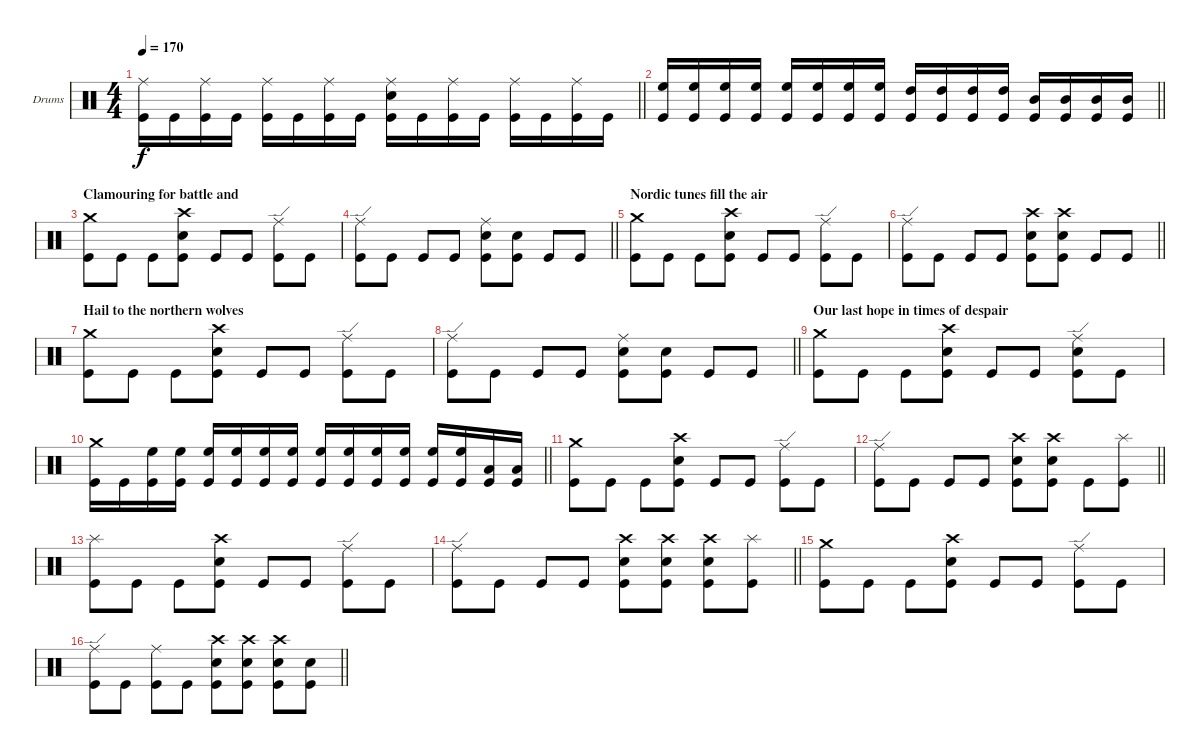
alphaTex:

\bracketExtendMode groupsimilarinstruments
\firstSystemTrackNameOrientation horizontal
\otherSystemsTrackNameOrientation horizontal
\track ("Drumkit" "Drums") {instrument percussion}
\staff {score}
\articulation defaults
\ts (4 4)
\tempo 170
\clef neutral
\barLineRight lightlight
\ks c
("Ride (middle)" "Kick (hit)").16{dy f} "Kick (hit)".16 ("Ride (middle)" "Kick (hit)").16 "Kick (hit)".16 ("Ride (middle)" "Kick (hit)").16 "Kick (hit)".16 ("Ride (middle)" "Kick (hit)").16 "Kick (hit)".16 ("Ride (middle)" "Snare (hit) 2" "Kick (hit)").16 "Kick (hit)".16 ("Ride (middle)" "Kick (hit)").16 "Kick (hit)".16 ("Ride (middle)" "Kick (hit)").16 "Kick (hit)".16 ("Ride (middle)" "Kick (hit)").16 "Kick (hit)".16 |
\barLineRight lightlight
("High Floor Tom (hit)" "Kick (hit)").16 ("High Floor Tom (hit)" "Kick (hit)").16 ("High Floor Tom (hit)" "Kick (hit)").16 ("High Floor Tom (hit)" "Kick (hit)").16 ("High Floor Tom (hit)" "Kick (hit)").16 ("High Floor Tom (hit)" "Kick (hit)").16 ("High Floor Tom (hit)" "Kick (hit)").16 ("High Floor Tom (hit)" "Kick (hit)").16 ("High Tom (hit)" "Kick (hit)").16 ("High Tom (hit)" "Kick (hit)").16 ("High Tom (hit)" "Kick (hit)").16 ("High Tom (hit)" "Kick (hit)").16 ("Mid Tom (hit)" "Kick (hit)").16 ("Mid Tom (hit)" "Kick (hit)").16 ("Mid Tom (hit)" "Kick (hit)").16 ("Mid Tom (hit)" "Kick (hit)").16 |
\section ("" "Clamouring for battle and")
("Crash medium (hit)" "Kick (hit)").8 "Kick (hit)".8 "Kick (hit)".8 ("Crash high (hit)" "Snare (hit) 2" "Kick (hit)").8 "Kick (hit)".8 "Kick (hit)".8 ("Ride (edge)" "Kick (hit)").8 "Kick (hit)".8 |
\barLineRight lightlight
("Ride (edge)" "Kick (hit)").8 "Kick (hit)".8 "Kick (hit)".8 "Kick (hit)".8 ("Ride (middle)" "Snare (hit) 2" "Kick (hit)").8 ("Snare (hit) 2" "Kick (hit)").8 "Kick (hit)".8 "Kick (hit)".8 |
\section ("" "Nordic tunes fill the air")
("Crash medium (hit)" "Kick (hit)").8 "Kick (hit)".8 "Kick (hit)".8 ("Crash high (hit)" "Snare (hit) 2" "Kick (hit)").8 "Kick (hit)".8 "Kick (hit)".8 ("Ride (edge)" "Kick (hit)").8 "Kick (hit)".8 |
\barLineRight lightlight
("Ride (edge)" "Kick (hit)").8 "Kick (hit)".8 "Kick (hit)".8 "Kick (hit)".8 ("Crash high (hit)" "Snare (hit) 2" "Kick (hit)").8 ("Crash high (hit)" "Snare (hit) 2" "Kick (hit)").8 "Kick (hit)".8 "Kick (hit)".8 |
\section ("" "Hail to the northern wolves")
("Crash medium (hit)" "Kick (hit)").8 "Kick (hit)".8 "Kick (hit)".8 ("Crash high (hit)" "Snare (hit) 2" "Kick (hit)").8 "Kick (hit)".8 "Kick (hit)".8 ("Ride (edge)" "Kick (hit)").8 "Kick (hit)".8 |
\barLineRight lightlight
("Ride (edge)" "Kick (hit)").8 "Kick (hit)".8 "Kick (hit)".8 "Kick (hit)".8 ("Ride (middle)" "Snare (hit) 2" "Kick (hit)").8 ("Snare (hit) 2" "Kick (hit)").8 "Kick (hit)".8 "Kick (hit)".8 |
\section ("" "Our last hope in times of despair ")
("Crash medium (hit)" "Kick (hit)").8 "Kick (hit)".8 "Kick (hit)".8 ("Crash high (hit)" "Snare (hit) 2" "Kick (hit)").8 "Kick (hit)".8 "Kick (hit)".8 ("Ride (edge)" "Snare (hit) 2" "Kick (hit)").8 "Kick (hit)".8 |
\barLineRight lightlight
("Crash medium (hit)" "Kick (hit)").16 "Kick (hit)".16 ("High Floor Tom (hit)" "Kick (hit)").16 ("High Floor Tom (hit)" "Kick (hit)").16 ("High Floor Tom (hit)" "Kick (hit)").16 ("High Floor Tom (hit)" "Kick (hit)").16 ("High Floor Tom (hit)" "Kick (hit)").16 ("High Floor Tom (hit)" "Kick (hit)").16 ("High Floor Tom (hit)" "Kick (hit)").16 ("High Floor Tom (hit)" "Kick (hit)").16 ("High Floor Tom (hit)" "Kick (hit)").16 ("High Floor Tom (hit)" "Kick (hit)").16 ("High Floor Tom (hit)" "Kick (hit)").16 ("High Floor Tom (hit)" "Kick (hit)").16 ("Low Tom (hit)" "Kick (hit)").16 ("Low Tom (hit)" "Kick (hit)").16 |
("Crash medium (hit)" "Kick (hit)").8 "Kick (hit)".8 "Kick (hit)".8 ("Crash high (hit)" "Snare (hit) 2" "Kick (hit)").8 "Kick (hit)".8 "Kick (hit)".8 ("Ride (edge)" "Kick (hit)").8 "Kick (hit)".8 |
\barLineRight lightlight
("Ride (edge)" "Kick (hit)").8 "Kick (hit)".8 "Kick (hit)".8 "Kick (hit)".8 ("Crash high (hit)" "Snare (hit) 2" "Kick (hit)").8 ("Crash high (hit)" "Snare (hit) 2" "Kick (hit)").8 "Kick (hit)".8 ("Splash (hit)" "Kick (hit)").8 |
("Splash (hit)" "Kick (hit)").8 "Kick (hit)".8 "Kick (hit)".8 ("Crash high (hit)" "Snare (hit) 2" "Kick (hit)").8 "Kick (hit)".8 "Kick (hit)".8 ("Ride (edge)" "Kick (hit)").8 "Kick (hit)".8 |
\barLineRight lightlight
("Ride (edge)" "Kick (hit)").8 "Kick (hit)".8 "Kick (hit)".8 "Kick (hit)".8 ("Crash high (hit)" "Snare (hit) 2" "Kick (hit)").8 ("Crash high (hit)" "Snare (hit) 2" "Kick (hit)").8 ("Crash high (hit)" "Snare (hit) 2" "Kick (hit)").8 ("Splash (hit)" "Kick (hit)").8 |
("Crash medium (hit)" "Kick (hit)").8 "Kick (hit)".8 "Kick (hit)".8 ("Crash high (hit)" "Snare (hit) 2" "Kick (hit)").8 "Kick (hit)".8 "Kick (hit)".8 ("Ride (edge)" "Kick (hit)").8 "Kick (hit)".8 |
\barLineRight lightlight
("Ride (edge)" "Kick (hit)").8 "Kick (hit)".8 ("Ride (middle)" "Kick (hit)").8 "Kick (hit)".8 ("Crash high (hit)" "Snare (hit) 2" "Kick (hit)").8 ("Crash high (hit)" "Snare (hit) 2" "Kick (hit)").8 ("Crash high (hit)" "Snare (hit) 2" "Kick (hit)").8 ("Snare (hit) 2" "Kick (hit)").8
